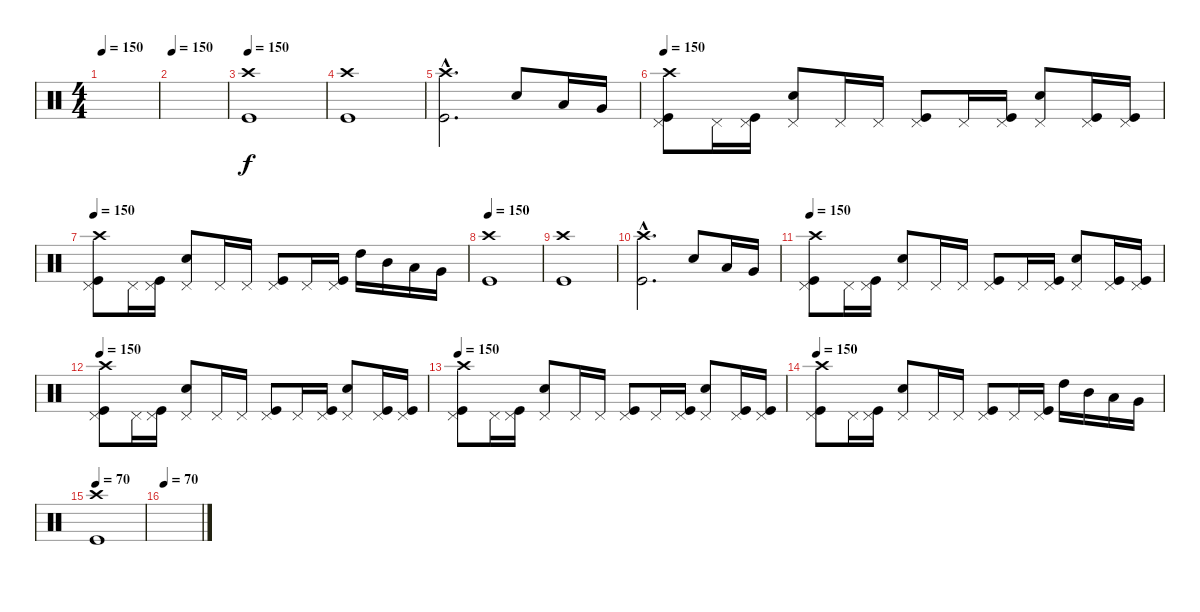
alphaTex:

\track "" {instrument percussion}
\staff {score}
\articulation defaults
\ts (4 4)
\tempo 150
\clef neutral
\ks c
|
\tempo 150
|
\tempo 150
("Crash high (hit)" "Kick (hit)").1 |
("Crash high (hit)" "Kick (hit)").1 |
("Crash high (hit)"{hac} "Kick (hit)"{hac}).2{d} "Snare (hit) 2".8 "Low Tom (hit)".16 "Very Low Tom (hit)".16 |
\tempo 150
("Pedal Hi-Hat (hit)" "Crash high (hit)" "Kick (hit)").8 "Pedal Hi-Hat (hit)".16 ("Pedal Hi-Hat (hit)" "Kick (hit)").16 ("Pedal Hi-Hat (hit)" "Snare (hit) 2").8 "Pedal Hi-Hat (hit)".16 "Pedal Hi-Hat (hit)".16 ("Pedal Hi-Hat (hit)" "Kick (hit)").8 "Pedal Hi-Hat (hit)".16 ("Pedal Hi-Hat (hit)" "Kick (hit)").16 ("Pedal Hi-Hat (hit)" "Snare (hit) 2").8 ("Pedal Hi-Hat (hit)" "Kick (hit)").16 ("Pedal Hi-Hat (hit)" "Kick (hit)").16 |
\tempo 150
("Pedal Hi-Hat (hit)" "Crash high (hit)" "Kick (hit)").8 "Pedal Hi-Hat (hit)".16 ("Pedal Hi-Hat (hit)" "Kick (hit)").16 ("Pedal Hi-Hat (hit)" "Snare (hit) 2").8 "Pedal Hi-Hat (hit)".16 "Pedal Hi-Hat (hit)".16 ("Pedal Hi-Hat (hit)" "Kick (hit)").8 "Pedal Hi-Hat (hit)".16 ("Pedal Hi-Hat (hit)" "Kick (hit)").16 "High Tom (hit)".16 "Mid Tom (hit)".16 "Low Tom (hit)".16 "Very Low Tom (hit)".16 |
\tempo 150
("Crash high (hit)" "Kick (hit)").1 |
("Crash high (hit)" "Kick (hit)").1 |
("Crash high (hit)"{hac} "Kick (hit)"{hac}).2{d} "Snare (hit) 2".8 "Low Tom (hit)".16 "Very Low Tom (hit)".16 |
\tempo 150
("Pedal Hi-Hat (hit)" "Crash high (hit)" "Kick (hit)").8 "Pedal Hi-Hat (hit)".16 ("Pedal Hi-Hat (hit)" "Kick (hit)").16 ("Pedal Hi-Hat (hit)" "Snare (hit) 2").8 "Pedal Hi-Hat (hit)".16 "Pedal Hi-Hat (hit)".16 ("Pedal Hi-Hat (hit)" "Kick (hit)").8 "Pedal Hi-Hat (hit)".16 ("Pedal Hi-Hat (hit)" "Kick (hit)").16 ("Pedal Hi-Hat (hit)" "Snare (hit) 2").8 ("Pedal Hi-Hat (hit)" "Kick (hit)").16 ("Pedal Hi-Hat (hit)" "Kick (hit)").16 |
\tempo 150
("Pedal Hi-Hat (hit)" "Crash high (hit)" "Kick (hit)").8 "Pedal Hi-Hat (hit)".16 ("Pedal Hi-Hat (hit)" "Kick (hit)").16 ("Pedal Hi-Hat (hit)" "Snare (hit) 2").8 "Pedal Hi-Hat (hit)".16 "Pedal Hi-Hat (hit)".16 ("Pedal Hi-Hat (hit)" "Kick (hit)").8 "Pedal Hi-Hat (hit)".16 ("Pedal Hi-Hat (hit)" "Kick (hit)").16 ("Pedal Hi-Hat (hit)" "Snare (hit) 2").8 ("Pedal Hi-Hat (hit)" "Kick (hit)").16 ("Pedal Hi-Hat (hit)" "Kick (hit)").16 |
\tempo 150
("Pedal Hi-Hat (hit)" "Crash high (hit)" "Kick (hit)").8 "Pedal Hi-Hat (hit)".16 ("Pedal Hi-Hat (hit)" "Kick (hit)").16 ("Pedal Hi-Hat (hit)" "Snare (hit) 2").8 "Pedal Hi-Hat (hit)".16 "Pedal Hi-Hat (hit)".16 ("Pedal Hi-Hat (hit)" "Kick (hit)").8 "Pedal Hi-Hat (hit)".16 ("Pedal Hi-Hat (hit)" "Kick (hit)").16 ("Pedal Hi-Hat (hit)" "Snare (hit) 2").8 ("Pedal Hi-Hat (hit)" "Kick (hit)").16 ("Pedal Hi-Hat (hit)" "Kick (hit)").16 |
\tempo 150
("Pedal Hi-Hat (hit)" "Crash high (hit)" "Kick (hit)").8 "Pedal Hi-Hat (hit)".16 ("Pedal Hi-Hat (hit)" "Kick (hit)").16 ("Pedal Hi-Hat (hit)" "Snare (hit) 2").8 "Pedal Hi-Hat (hit)".16 "Pedal Hi-Hat (hit)".16 ("Pedal Hi-Hat (hit)" "Kick (hit)").8 "Pedal Hi-Hat (hit)".16 ("Pedal Hi-Hat (hit)" "Kick (hit)").16 "High Tom (hit)".16 "Mid Tom (hit)".16 "Low Tom (hit)".16 "Very Low Tom (hit)".16 |
\tempo 70
("Crash high (hit)" "Kick (hit)").1 |
\tempo 70
